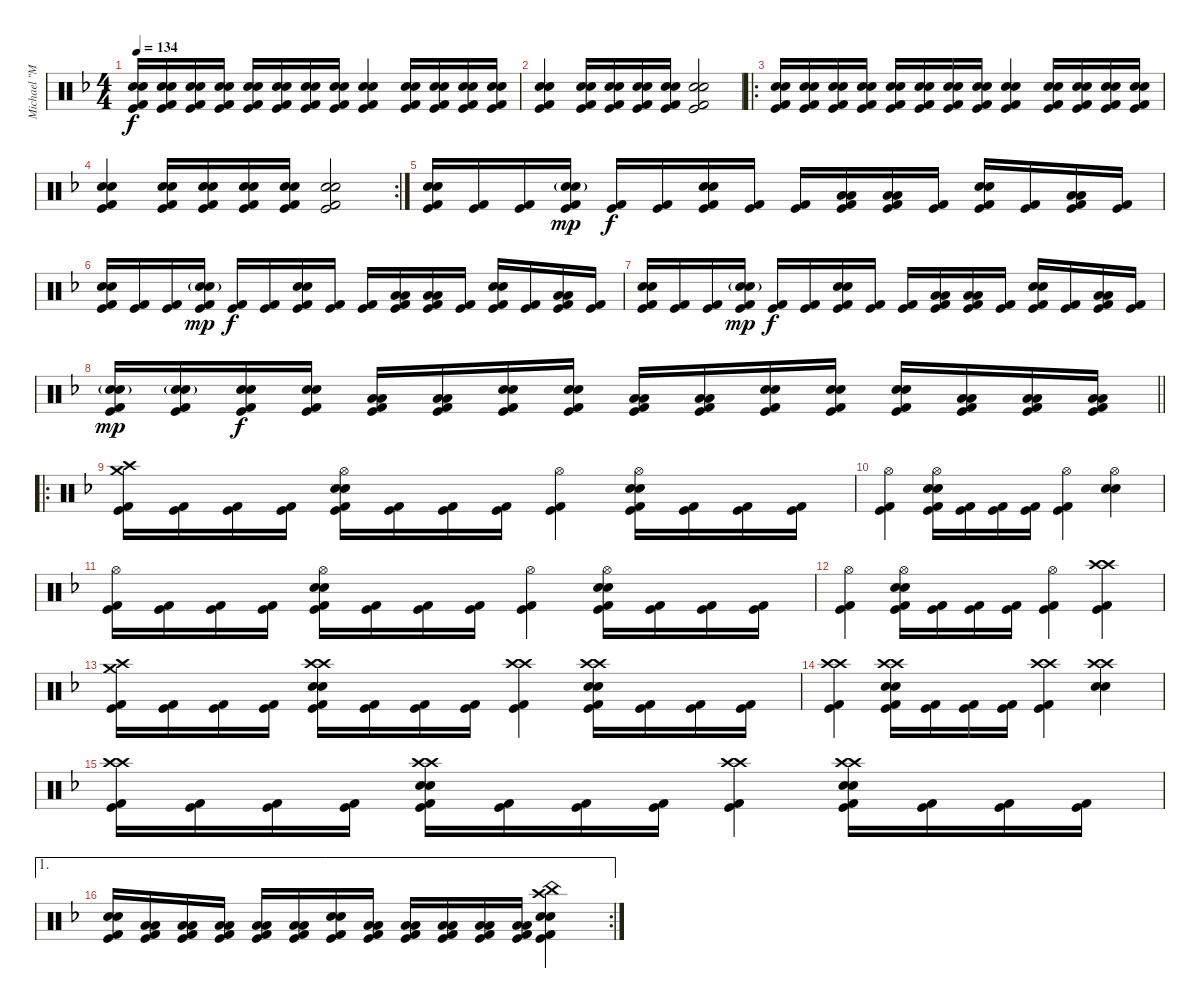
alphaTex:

\track ("Michael \"Moose\" Thomas" "Michael \"M") {instrument percussion}
\staff {score}
\articulation defaults
\ts (4 4)
\tempo 134
\clef neutral
\ks f
("Electric Snare (hit)" "Electric Snare (hit)" "Kick (hit)" "Kick (hit) 2").16{dy f} ("Electric Snare (hit)" "Electric Snare (hit)" "Kick (hit)" "Kick (hit) 2").16 ("Electric Snare (hit)" "Electric Snare (hit)" "Kick (hit)" "Kick (hit) 2").16 ("Electric Snare (hit)" "Electric Snare (hit)" "Kick (hit)" "Kick (hit) 2").16 ("Electric Snare (hit)" "Electric Snare (hit)" "Kick (hit)" "Kick (hit) 2").16 ("Electric Snare (hit)" "Electric Snare (hit)" "Kick (hit)" "Kick (hit) 2").16 ("Electric Snare (hit)" "Electric Snare (hit)" "Kick (hit)" "Kick (hit) 2").16 ("Electric Snare (hit)" "Electric Snare (hit)" "Kick (hit)" "Kick (hit) 2").16 ("Electric Snare (hit)" "Electric Snare (hit)" "Kick (hit)" "Kick (hit) 2").4 ("Electric Snare (hit)" "Electric Snare (hit)" "Kick (hit)" "Kick (hit) 2").16 ("Electric Snare (hit)" "Electric Snare (hit)" "Kick (hit)" "Kick (hit) 2").16 ("Electric Snare (hit)" "Electric Snare (hit)" "Kick (hit)" "Kick (hit) 2").16 ("Electric Snare (hit)" "Electric Snare (hit)" "Kick (hit)" "Kick (hit) 2").16 |
("Electric Snare (hit)" "Electric Snare (hit)" "Kick (hit)" "Kick (hit) 2").4 ("Electric Snare (hit)" "Electric Snare (hit)" "Kick (hit)" "Kick (hit) 2").16 ("Electric Snare (hit)" "Electric Snare (hit)" "Kick (hit)" "Kick (hit) 2").16 ("Electric Snare (hit)" "Electric Snare (hit)" "Kick (hit)" "Kick (hit) 2").16 ("Electric Snare (hit)" "Electric Snare (hit)" "Kick (hit)" "Kick (hit) 2").16 ("Electric Snare (hit)" "Electric Snare (hit)" "Kick (hit)" "Kick (hit) 2").2 |
\ro
("Electric Snare (hit)" "Electric Snare (hit)" "Kick (hit)" "Kick (hit) 2").16 ("Electric Snare (hit)" "Electric Snare (hit)" "Kick (hit)" "Kick (hit) 2").16 ("Electric Snare (hit)" "Electric Snare (hit)" "Kick (hit)" "Kick (hit) 2").16 ("Electric Snare (hit)" "Electric Snare (hit)" "Kick (hit)" "Kick (hit) 2").16 ("Electric Snare (hit)" "Electric Snare (hit)" "Kick (hit)" "Kick (hit) 2").16 ("Electric Snare (hit)" "Electric Snare (hit)" "Kick (hit)" "Kick (hit) 2").16 ("Electric Snare (hit)" "Electric Snare (hit)" "Kick (hit)" "Kick (hit) 2").16 ("Electric Snare (hit)" "Electric Snare (hit)" "Kick (hit)" "Kick (hit) 2").16 ("Electric Snare (hit)" "Electric Snare (hit)" "Kick (hit)" "Kick (hit) 2").4 ("Electric Snare (hit)" "Electric Snare (hit)" "Kick (hit)" "Kick (hit) 2").16 ("Electric Snare (hit)" "Electric Snare (hit)" "Kick (hit)" "Kick (hit) 2").16 ("Electric Snare (hit)" "Electric Snare (hit)" "Kick (hit)" "Kick (hit) 2").16 ("Electric Snare (hit)" "Electric Snare (hit)" "Kick (hit)" "Kick (hit) 2").16 |
\rc 2
("Electric Snare (hit)" "Electric Snare (hit)" "Kick (hit)" "Kick (hit) 2").4 ("Electric Snare (hit)" "Electric Snare (hit)" "Kick (hit)" "Kick (hit) 2").16 ("Electric Snare (hit)" "Electric Snare (hit)" "Kick (hit)" "Kick (hit) 2").16 ("Electric Snare (hit)" "Electric Snare (hit)" "Kick (hit)" "Kick (hit) 2").16 ("Electric Snare (hit)" "Electric Snare (hit)" "Kick (hit)" "Kick (hit) 2").16 ("Electric Snare (hit)" "Electric Snare (hit)" "Kick (hit)" "Kick (hit) 2").2 |
("Electric Snare (hit)" "Electric Snare (hit)" "Kick (hit)" "Kick (hit) 2").16 ("Kick (hit)" "Kick (hit) 2").16 ("Kick (hit)" "Kick (hit) 2").16 ("Electric Snare (hit)"{g} "Electric Snare (hit)"{g} "Kick (hit)" "Kick (hit) 2").16{dy mp} ("Kick (hit)" "Kick (hit) 2").16{dy f} ("Kick (hit)" "Kick (hit) 2").16 ("Electric Snare (hit)" "Electric Snare (hit)" "Kick (hit)" "Kick (hit) 2").16 ("Kick (hit)" "Kick (hit) 2").16 ("Kick (hit)" "Kick (hit) 2").16 ("Low Tom (hit)" "Low Floor Tom (hit)" "Kick (hit)" "Kick (hit) 2").16 ("Low Floor Tom (hit)" "Low Floor Tom (hit)" "Kick (hit)" "Kick (hit) 2").16 ("Kick (hit)" "Kick (hit) 2").16 ("Electric Snare (hit)" "Electric Snare (hit)" "Kick (hit)" "Kick (hit) 2").16 ("Kick (hit)" "Kick (hit) 2").16 ("Low Floor Tom (hit)" "Low Floor Tom (hit)" "Kick (hit)" "Kick (hit) 2").16 ("Kick (hit)" "Kick (hit) 2").16 |
("Electric Snare (hit)" "Electric Snare (hit)" "Kick (hit)" "Kick (hit) 2").16 ("Kick (hit)" "Kick (hit) 2").16 ("Kick (hit)" "Kick (hit) 2").16 ("Electric Snare (hit)"{g} "Electric Snare (hit)"{g} "Kick (hit)" "Kick (hit) 2").16{dy mp} ("Kick (hit)" "Kick (hit) 2").16{dy f} ("Kick (hit)" "Kick (hit) 2").16 ("Electric Snare (hit)" "Electric Snare (hit)" "Kick (hit)" "Kick (hit) 2").16 ("Kick (hit)" "Kick (hit) 2").16 ("Kick (hit)" "Kick (hit) 2").16 ("Low Tom (hit)" "Low Floor Tom (hit)" "Kick (hit)" "Kick (hit) 2").16 ("Low Floor Tom (hit)" "Low Floor Tom (hit)" "Kick (hit)" "Kick (hit) 2").16 ("Kick (hit)" "Kick (hit) 2").16 ("Electric Snare (hit)" "Electric Snare (hit)" "Kick (hit)" "Kick (hit) 2").16 ("Kick (hit)" "Kick (hit) 2").16 ("Low Floor Tom (hit)" "Low Floor Tom (hit)" "Kick (hit)" "Kick (hit) 2").16 ("Kick (hit)" "Kick (hit) 2").16 |
("Electric Snare (hit)" "Electric Snare (hit)" "Kick (hit)" "Kick (hit) 2").16 ("Kick (hit)" "Kick (hit) 2").16 ("Kick (hit)" "Kick (hit) 2").16 ("Electric Snare (hit)"{g} "Electric Snare (hit)"{g} "Kick (hit)" "Kick (hit) 2").16{dy mp} ("Kick (hit)" "Kick (hit) 2").16{dy f} ("Kick (hit)" "Kick (hit) 2").16 ("Electric Snare (hit)" "Electric Snare (hit)" "Kick (hit)" "Kick (hit) 2").16 ("Kick (hit)" "Kick (hit) 2").16 ("Kick (hit)" "Kick (hit) 2").16 ("Low Tom (hit)" "Low Floor Tom (hit)" "Kick (hit)" "Kick (hit) 2").16 ("Low Floor Tom (hit)" "Low Floor Tom (hit)" "Kick (hit)" "Kick (hit) 2").16 ("Kick (hit)" "Kick (hit) 2").16 ("Electric Snare (hit)" "Electric Snare (hit)" "Kick (hit)" "Kick (hit) 2").16 ("Kick (hit)" "Kick (hit) 2").16 ("Low Floor Tom (hit)" "Low Floor Tom (hit)" "Kick (hit)" "Kick (hit) 2").16 ("Kick (hit)" "Kick (hit) 2").16 |
\barLineRight lightlight
("Electric Snare (hit)"{g} "Electric Snare (hit)"{g} "Kick (hit)" "Kick (hit) 2").16{dy mp} ("Electric Snare (hit)" "Electric Snare (hit)"{g} "Kick (hit)" "Kick (hit) 2").16 ("Electric Snare (hit)" "Electric Snare (hit)" "Kick (hit)" "Kick (hit) 2").16{dy f} ("Electric Snare (hit)" "Electric Snare (hit)" "Kick (hit)" "Kick (hit) 2").16 ("Low Tom (hit)" "Low Tom (hit)" "Kick (hit)" "Kick (hit) 2").16 ("Low Tom (hit)" "Low Floor Tom (hit)" "Kick (hit)" "Kick (hit) 2").16 ("Electric Snare (hit)" "Electric Snare (hit)" "Kick (hit)" "Kick (hit) 2").16 ("Electric Snare (hit)" "Electric Snare (hit)" "Kick (hit)" "Kick (hit) 2").16 ("Low Tom (hit)" "Low Tom (hit)" "Kick (hit)" "Kick (hit) 2").16 ("Low Tom (hit)" "Low Floor Tom (hit)" "Kick (hit)" "Kick (hit) 2").16 ("Electric Snare (hit)" "Electric Snare (hit)" "Kick (hit)" "Kick (hit) 2").16 ("Electric Snare (hit)" "Electric Snare (hit)" "Kick (hit)" "Kick (hit) 2").16 ("Electric Snare (hit)" "Electric Snare (hit)" "Kick (hit)" "Kick (hit) 2").16 ("Low Tom (hit)" "Low Tom (hit)" "Kick (hit)" "Kick (hit) 2").16 ("Low Tom (hit)" "Low Floor Tom (hit)" "Kick (hit)" "Kick (hit) 2").16 ("Low Floor Tom (hit)" "Low Floor Tom (hit)" "Kick (hit)" "Kick (hit) 2").16 |
\ro
("Crash high (hit)" "Crash medium (hit)" "Kick (hit)" "Kick (hit) 2").16 ("Kick (hit)" "Kick (hit) 2").16 ("Kick (hit)" "Kick (hit) 2").16 ("Kick (hit)" "Kick (hit) 2").16 ("Hi-Hat (open)" "Electric Snare (hit)" "Electric Snare (hit)" "Kick (hit)" "Kick (hit) 2").16 ("Kick (hit)" "Kick (hit) 2").16 ("Kick (hit)" "Kick (hit) 2").16 ("Kick (hit)" "Kick (hit) 2").16 ("Hi-Hat (open)" "Kick (hit)" "Kick (hit) 2").4 ("Hi-Hat (open)" "Electric Snare (hit)" "Electric Snare (hit)" "Kick (hit)" "Kick (hit) 2").16 ("Kick (hit)" "Kick (hit) 2").16 ("Kick (hit)" "Kick (hit) 2").16 ("Kick (hit)" "Kick (hit) 2").16 |
("Hi-Hat (open)" "Kick (hit)" "Kick (hit) 2").4 ("Hi-Hat (open)" "Electric Snare (hit)" "Electric Snare (hit)" "Kick (hit)" "Kick (hit) 2").16 ("Kick (hit)" "Kick (hit) 2").16 ("Kick (hit)" "Kick (hit) 2").16 ("Kick (hit)" "Kick (hit) 2").16 ("Hi-Hat (open)" "Kick (hit)" "Kick (hit) 2").4 ("Hi-Hat (open)" "Electric Snare (hit)" "Electric Snare (hit)").4 |
("Hi-Hat (open)" "Kick (hit)" "Kick (hit) 2").16 ("Kick (hit)" "Kick (hit) 2").16 ("Kick (hit)" "Kick (hit) 2").16 ("Kick (hit)" "Kick (hit) 2").16 ("Hi-Hat (open)" "Electric Snare (hit)" "Electric Snare (hit)" "Kick (hit)" "Kick (hit) 2").16 ("Kick (hit)" "Kick (hit) 2").16 ("Kick (hit)" "Kick (hit) 2").16 ("Kick (hit)" "Kick (hit) 2").16 ("Hi-Hat (open)" "Kick (hit)" "Kick (hit) 2").4 ("Hi-Hat (open)" "Electric Snare (hit)" "Electric Snare (hit)" "Kick (hit)" "Kick (hit) 2").16 ("Kick (hit)" "Kick (hit) 2").16 ("Kick (hit)" "Kick (hit) 2").16 ("Kick (hit)" "Kick (hit) 2").16 |
("Hi-Hat (open)" "Kick (hit)" "Kick (hit) 2").4 ("Hi-Hat (open)" "Electric Snare (hit)" "Electric Snare (hit)" "Kick (hit)" "Kick (hit) 2").16 ("Kick (hit)" "Kick (hit) 2").16 ("Kick (hit)" "Kick (hit) 2").16 ("Kick (hit)" "Kick (hit) 2").16 ("Hi-Hat (open)" "Kick (hit)" "Kick (hit) 2").4 ("Crash high (hit)" "Crash high (hit)" "Kick (hit)" "Kick (hit) 2").4 |
("Crash high (hit)" "Crash medium (hit)" "Kick (hit)" "Kick (hit) 2").16 ("Kick (hit)" "Kick (hit) 2").16 ("Kick (hit)" "Kick (hit) 2").16 ("Kick (hit)" "Kick (hit) 2").16 ("Crash high (hit)" "Crash high (hit)" "Electric Snare (hit)" "Electric Snare (hit)" "Kick (hit)" "Kick (hit) 2").16 ("Kick (hit)" "Kick (hit) 2").16 ("Kick (hit)" "Kick (hit) 2").16 ("Kick (hit)" "Kick (hit) 2").16 ("Crash high (hit)" "Crash high (hit)" "Kick (hit)" "Kick (hit) 2").4 ("Crash high (hit)" "Crash high (hit)" "Electric Snare (hit)" "Electric Snare (hit)" "Kick (hit)" "Kick (hit) 2").16 ("Kick (hit)" "Kick (hit) 2").16 ("Kick (hit)" "Kick (hit) 2").16 ("Kick (hit)" "Kick (hit) 2").16 |
("Crash high (hit)" "Crash high (hit)" "Kick (hit)" "Kick (hit) 2").4 ("Crash high (hit)" "Crash high (hit)" "Electric Snare (hit)" "Electric Snare (hit)" "Kick (hit)" "Kick (hit) 2").16 ("Kick (hit)" "Kick (hit) 2").16 ("Kick (hit)" "Kick (hit) 2").16 ("Kick (hit)" "Kick (hit) 2").16 ("Crash high (hit)" "Crash high (hit)" "Kick (hit)" "Kick (hit) 2").4 ("Crash high (hit)" "Crash high (hit)" "Electric Snare (hit)" "Electric Snare (hit)").4 |
("Crash high (hit)" "Crash high (hit)" "Kick (hit)" "Kick (hit) 2").16 ("Kick (hit)" "Kick (hit) 2").16 ("Kick (hit)" "Kick (hit) 2").16 ("Kick (hit)" "Kick (hit) 2").16 ("Crash high (hit)" "Crash high (hit)" "Electric Snare (hit)" "Electric Snare (hit)" "Kick (hit)" "Kick (hit) 2").16 ("Kick (hit)" "Kick (hit) 2").16 ("Kick (hit)" "Kick (hit) 2").16 ("Kick (hit)" "Kick (hit) 2").16 ("Crash high (hit)" "Crash high (hit)" "Kick (hit)" "Kick (hit) 2").4 ("Crash high (hit)" "Crash high (hit)" "Electric Snare (hit)" "Electric Snare (hit)" "Kick (hit)" "Kick (hit) 2").16 ("Kick (hit)" "Kick (hit) 2").16 ("Kick (hit)" "Kick (hit) 2").16 ("Kick (hit)" "Kick (hit) 2").16 |
\ae 1
\rc 2
("Electric Snare (hit)" "Electric Snare (hit)" "Kick (hit)" "Kick (hit) 2").16 ("Low Tom (hit)" "Low Tom (hit)" "Kick (hit)" "Kick (hit) 2").16 ("Low Tom (hit)" "Low Floor Tom (hit)" "Kick (hit)" "Kick (hit) 2").16 ("Low Floor Tom (hit)" "Low Floor Tom (hit)" "Kick (hit)" "Kick (hit) 2").16 ("Low Tom (hit)" "Low Floor Tom (hit)" "Kick (hit)" "Kick (hit) 2").16 ("Low Floor Tom (hit)" "Low Floor Tom (hit)" "Kick (hit)" "Kick (hit) 2").16 ("Electric Snare (hit)" "Electric Snare (hit)" "Kick (hit)" "Kick (hit) 2").16 ("Low Tom (hit)" "Low Tom (hit)" "Kick (hit)" "Kick (hit) 2").16 ("Low Tom (hit)" "Low Floor Tom (hit)" "Kick (hit)" "Kick (hit) 2").16 ("Low Floor Tom (hit)" "Low Floor Tom (hit)" "Kick (hit)" "Kick (hit) 2").16 ("Low Tom (hit)" "Low Floor Tom (hit)" "Kick (hit)" "Kick (hit) 2").16 ("Low Floor Tom (hit)" "Low Floor Tom (hit)" "Kick (hit)" "Kick (hit) 2").16 ("Crash high (hit)" "China (hit)" "Electric Snare (hit)" "Electric Snare (hit)" "Kick (hit)" "Kick (hit) 2").4
